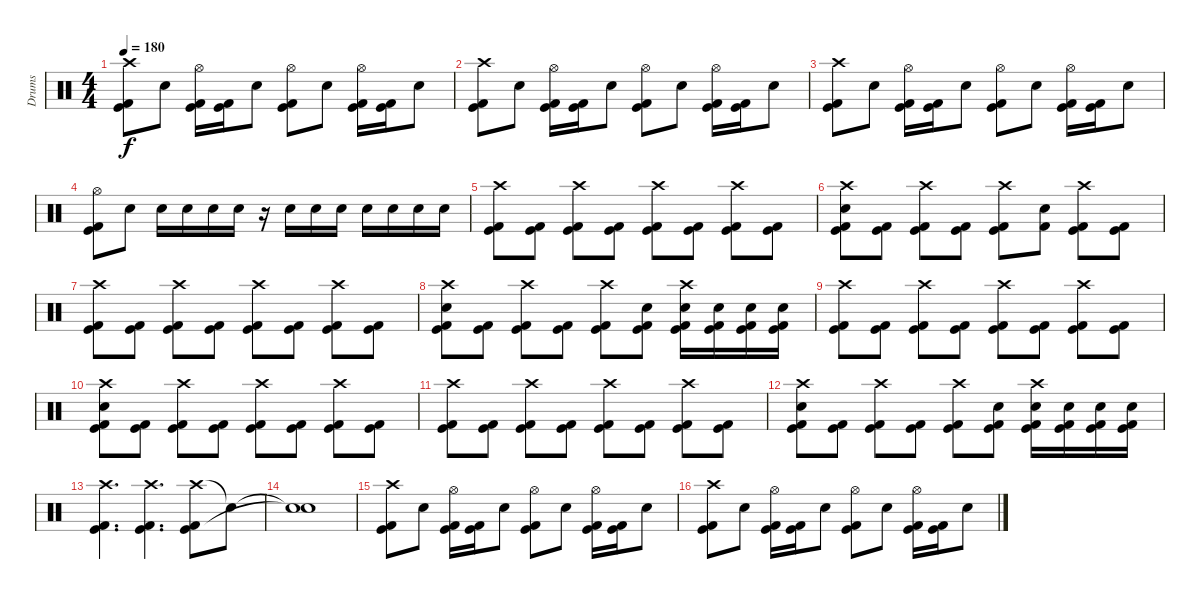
\track ("Drums" "Drums") {instrument percussion}
\staff {score}
\articulation defaults
\ts (4 4)
\tempo 180
\clef neutral
\ks c
("Crash high (hit)" "Kick (hit)" "Kick (hit) 2").8{dy f} "Electric Snare (hit)".8 ("Hi-Hat (open)" "Kick (hit)" "Kick (hit) 2").16 ("Kick (hit)" "Kick (hit) 2").16 "Electric Snare (hit)".8 ("Hi-Hat (open)" "Kick (hit)" "Kick (hit) 2").8 "Electric Snare (hit)".8 ("Hi-Hat (open)" "Kick (hit)" "Kick (hit) 2").16 ("Kick (hit)" "Kick (hit) 2").16 "Electric Snare (hit)".8 |
("Crash high (hit)" "Kick (hit)" "Kick (hit) 2").8 "Electric Snare (hit)".8 ("Hi-Hat (open)" "Kick (hit)" "Kick (hit) 2").16 ("Kick (hit)" "Kick (hit) 2").16 "Electric Snare (hit)".8 ("Hi-Hat (open)" "Kick (hit)" "Kick (hit) 2").8 "Electric Snare (hit)".8 ("Hi-Hat (open)" "Kick (hit)" "Kick (hit) 2").16 ("Kick (hit)" "Kick (hit) 2").16 "Electric Snare (hit)".8 |
("Crash high (hit)" "Kick (hit)" "Kick (hit) 2").8 "Electric Snare (hit)".8 ("Hi-Hat (open)" "Kick (hit)" "Kick (hit) 2").16 ("Kick (hit)" "Kick (hit) 2").16 "Electric Snare (hit)".8 ("Hi-Hat (open)" "Kick (hit)" "Kick (hit) 2").8 "Electric Snare (hit)".8 ("Hi-Hat (open)" "Kick (hit)" "Kick (hit) 2").16 ("Kick (hit)" "Kick (hit) 2").16 "Electric Snare (hit)".8 |
("Hi-Hat (open)" "Kick (hit)" "Kick (hit) 2").8 "Electric Snare (hit)".8 "Electric Snare (hit)".16 "Electric Snare (hit)".16 "Electric Snare (hit)".16 "Electric Snare (hit)".16 r.16 "Electric Snare (hit)".16 "Electric Snare (hit)".16 "Electric Snare (hit)".16 "Electric Snare (hit)".16 "Electric Snare (hit)".16 "Electric Snare (hit)".16 "Electric Snare (hit)".16 |
("Crash high (hit)" "Kick (hit)" "Kick (hit) 2").8 ("Kick (hit)" "Kick (hit) 2").8 ("Crash high (hit)" "Kick (hit)" "Kick (hit) 2").8 ("Kick (hit)" "Kick (hit) 2").8 ("Crash high (hit)" "Kick (hit)" "Kick (hit) 2").8 ("Kick (hit)" "Kick (hit) 2").8 ("Crash high (hit)" "Kick (hit)" "Kick (hit) 2").8 ("Kick (hit)" "Kick (hit) 2").8 |
("Crash high (hit)" "Kick (hit)" "Electric Snare (hit)" "Kick (hit) 2").8 ("Kick (hit)" "Kick (hit) 2").8 ("Crash high (hit)" "Kick (hit)" "Kick (hit) 2").8 ("Kick (hit)" "Kick (hit) 2").8 ("Crash high (hit)" "Kick (hit)" "Kick (hit) 2").8 ("Snare (hit)" "Kick (hit) 2").8 ("Crash high (hit)" "Kick (hit)" "Kick (hit) 2").8 ("Kick (hit)" "Kick (hit) 2").8 |
("Crash high (hit)" "Kick (hit)" "Kick (hit) 2").8 ("Kick (hit)" "Kick (hit) 2").8 ("Crash high (hit)" "Kick (hit)" "Kick (hit) 2").8 ("Kick (hit)" "Kick (hit) 2").8 ("Crash high (hit)" "Kick (hit)" "Kick (hit) 2").8 ("Kick (hit)" "Kick (hit) 2").8 ("Crash high (hit)" "Kick (hit)" "Kick (hit) 2").8 ("Kick (hit)" "Kick (hit) 2").8 |
("Crash high (hit)" "Kick (hit)" "Electric Snare (hit)" "Kick (hit) 2").8 ("Kick (hit)" "Kick (hit) 2").8 ("Crash high (hit)" "Kick (hit)" "Kick (hit) 2").8 ("Kick (hit)" "Kick (hit) 2").8 ("Crash high (hit)" "Kick (hit)" "Kick (hit) 2").8 ("Kick (hit)" "Electric Snare (hit)" "Kick (hit) 2").8 ("Crash high (hit)" "Kick (hit)" "Electric Snare (hit)" "Kick (hit) 2").16 ("Kick (hit)" "Electric Snare (hit)" "Kick (hit) 2").16 ("Kick (hit)" "Electric Snare (hit)" "Kick (hit) 2").16 ("Kick (hit)" "Electric Snare (hit)" "Kick (hit) 2").16 |
("Crash high (hit)" "Kick (hit)" "Kick (hit) 2").8 ("Kick (hit)" "Kick (hit) 2").8 ("Crash high (hit)" "Kick (hit)" "Kick (hit) 2").8 ("Kick (hit)" "Kick (hit) 2").8 ("Crash high (hit)" "Kick (hit)" "Kick (hit) 2").8 ("Kick (hit)" "Kick (hit) 2").8 ("Crash high (hit)" "Kick (hit)" "Kick (hit) 2").8 ("Kick (hit)" "Kick (hit) 2").8 |
("Crash high (hit)" "Kick (hit)" "Electric Snare (hit)" "Kick (hit) 2").8 ("Kick (hit)" "Kick (hit) 2").8 ("Crash high (hit)" "Kick (hit)" "Kick (hit) 2").8 ("Kick (hit)" "Kick (hit) 2").8 ("Crash high (hit)" "Kick (hit)" "Kick (hit) 2").8 ("Kick (hit)" "Kick (hit) 2").8 ("Crash high (hit)" "Kick (hit)" "Kick (hit) 2").8 ("Kick (hit)" "Kick (hit) 2").8 |
("Crash high (hit)" "Kick (hit)" "Kick (hit) 2").8 ("Kick (hit)" "Kick (hit) 2").8 ("Crash high (hit)" "Kick (hit)" "Kick (hit) 2").8 ("Kick (hit)" "Kick (hit) 2").8 ("Crash high (hit)" "Kick (hit)" "Kick (hit) 2").8 ("Kick (hit)" "Kick (hit) 2").8 ("Crash high (hit)" "Kick (hit)" "Kick (hit) 2").8 ("Kick (hit)" "Kick (hit) 2").8 |
("Crash high (hit)" "Kick (hit)" "Electric Snare (hit)" "Kick (hit) 2").8 ("Kick (hit)" "Kick (hit) 2").8 ("Crash high (hit)" "Kick (hit)" "Kick (hit) 2").8 ("Kick (hit)" "Kick (hit) 2").8 ("Crash high (hit)" "Kick (hit)" "Kick (hit) 2").8 ("Kick (hit)" "Electric Snare (hit)" "Kick (hit) 2").8 ("Crash high (hit)" "Kick (hit)" "Electric Snare (hit)" "Kick (hit) 2").16 ("Kick (hit)" "Electric Snare (hit)" "Kick (hit) 2").16 ("Kick (hit)" "Electric Snare (hit)" "Kick (hit) 2").16 ("Kick (hit)" "Electric Snare (hit)" "Kick (hit) 2").16 |
("Crash high (hit)" "Kick (hit)" "Kick (hit) 2").4{d} ("Crash high (hit)" "Kick (hit)" "Kick (hit) 2").4{d} ("Crash high (hit)" "Kick (hit)" "Kick (hit) 2").8 "Snare (hit)"{t}.8 |
("Snare (hit)"{t} "Snare (hit)"{t}).1 |
("Crash high (hit)" "Kick (hit)" "Kick (hit) 2").8 "Electric Snare (hit)".8 ("Hi-Hat (open)" "Kick (hit)" "Kick (hit) 2").16 ("Kick (hit)" "Kick (hit) 2").16 "Electric Snare (hit)".8 ("Hi-Hat (open)" "Kick (hit)" "Kick (hit) 2").8 "Electric Snare (hit)".8 ("Hi-Hat (open)" "Kick (hit)" "Kick (hit) 2").16 ("Kick (hit)" "Kick (hit) 2").16 "Electric Snare (hit)".8 |
("Crash high (hit)" "Kick (hit)" "Kick (hit) 2").8 "Electric Snare (hit)".8 ("Hi-Hat (open)" "Kick (hit)" "Kick (hit) 2").16 ("Kick (hit)" "Kick (hit) 2").16 "Electric Snare (hit)".8 ("Hi-Hat (open)" "Kick (hit)" "Kick (hit) 2").8 "Electric Snare (hit)".8 ("Hi-Hat (open)" "Kick (hit)" "Kick (hit) 2").16 ("Kick (hit)" "Kick (hit) 2").16 "Electric Snare (hit)".8
